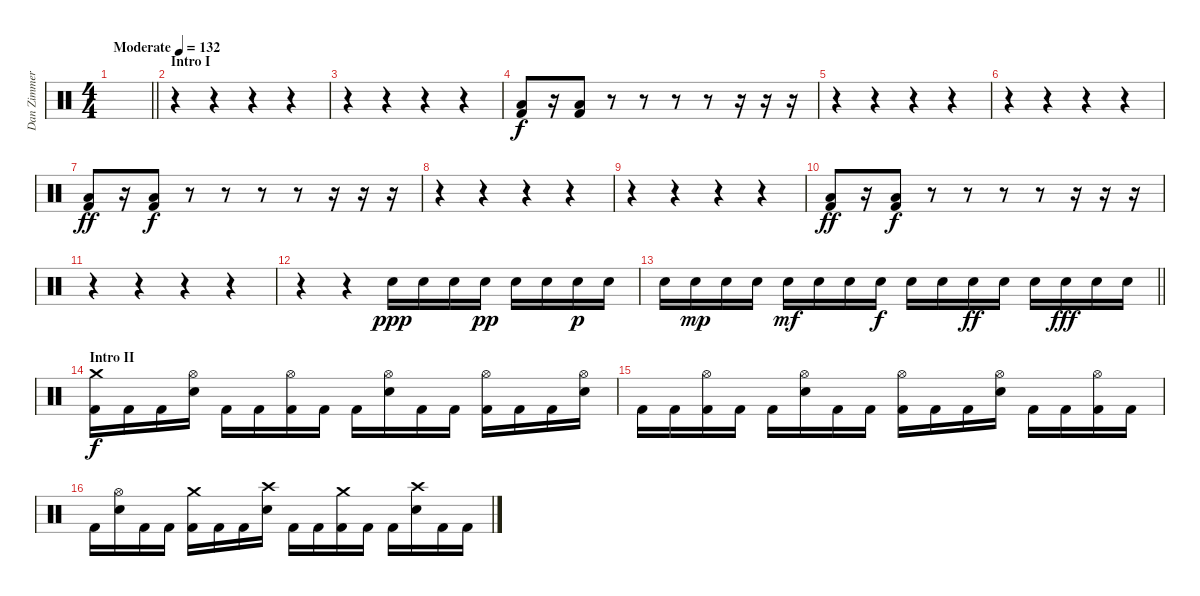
\track ("Dan Zimmermann" "Dan Zimmer") {instrument percussion}
\staff {score}
\articulation defaults
\ts (4 4)
\tempo (132 "Moderate")
\clef neutral
\barLineRight lightlight
\ks c
|
\section ("" "Intro I")
r.4 r.4 r.4 r.4 |
r.4 r.4 r.4 r.4 |
("Low Floor Tom (hit)" "Kick (hit) 2").8 r.16 ("Low Floor Tom (hit)" "Kick (hit) 2").8{dy f} r.8 r.8 r.8 r.8 r.16 r.16 r.16 |
r.4 r.4 r.4 r.4 |
r.4 r.4 r.4 r.4 |
("Low Floor Tom (hit)" "Kick (hit) 2").8{dy ff} r.16 ("Low Floor Tom (hit)" "Kick (hit) 2").8{dy f} r.8 r.8 r.8 r.8 r.16 r.16 r.16 |
r.4 r.4 r.4 r.4 |
r.4 r.4 r.4 r.4 |
("Low Floor Tom (hit)" "Kick (hit) 2").8{dy ff} r.16 ("Low Floor Tom (hit)" "Kick (hit) 2").8{dy f} r.8 r.8 r.8 r.8 r.16 r.16 r.16 |
r.4 r.4 r.4 r.4 |
r.4 r.4 "Electric Snare (hit)".16{dy ppp} "Electric Snare (hit)".16 "Electric Snare (hit)".16 "Electric Snare (hit)".16{dy pp} "Electric Snare (hit)".16 "Electric Snare (hit)".16 "Electric Snare (hit)".16{dy p} "Electric Snare (hit)".16 |
\barLineRight lightlight "Electric Snare (hit)".16 "Electric Snare (hit)".16{dy mp} "Electric Snare (hit)".16 "Electric Snare (hit)".16 "Electric Snare (hit)".16{dy mf} "Electric Snare (hit)".16 "Electric Snare (hit)".16 "Electric Snare (hit)".16{dy f} "Electric Snare (hit)".16 "Electric Snare (hit)".16 "Electric Snare (hit)".16{dy ff} "Electric Snare (hit)".16 "Electric Snare (hit)".16 "Electric Snare (hit)".16{dy fff} "Electric Snare (hit)".16 "Electric Snare (hit)".16
|
\section ("" "Intro II")
("Crash medium (hit)" "Kick (hit) 2").16{dy f} "Kick (hit) 2".16 "Kick (hit) 2".16 ("Hi-Hat (open)" "Electric Snare (hit)").16 "Kick (hit) 2".16 "Kick (hit) 2".16 ("Hi-Hat (open)" "Kick (hit) 2").16 "Kick (hit) 2".16 "Kick (hit) 2".16 ("Hi-Hat (open)" "Electric Snare (hit)").16 "Kick (hit) 2".16 "Kick (hit) 2".16 ("Hi-Hat (open)" "Kick (hit) 2").16 "Kick (hit) 2".16 "Kick (hit) 2".16 ("Hi-Hat (open)" "Electric Snare (hit)").16 |
"Kick (hit) 2".16 "Kick (hit) 2".16 ("Hi-Hat (open)" "Kick (hit) 2").16 "Kick (hit) 2".16 "Kick (hit) 2".16 ("Hi-Hat (open)" "Electric Snare (hit)").16 "Kick (hit) 2".16 "Kick (hit) 2".16 ("Hi-Hat (open)" "Kick (hit) 2").16 "Kick (hit) 2".16 "Kick (hit) 2".16 ("Hi-Hat (open)" "Electric Snare (hit)").16 "Kick (hit) 2".16 "Kick (hit) 2".16 ("Hi-Hat (open)" "Kick (hit) 2").16 "Kick (hit) 2".16 |
"Kick (hit) 2".16 ("Hi-Hat (open)" "Electric Snare (hit)").16 "Kick (hit) 2".16 "Kick (hit) 2".16 ("Crash medium (hit)" "Kick (hit) 2").16 "Kick (hit) 2".16 "Kick (hit) 2".16 ("Crash high (hit)" "Electric Snare (hit)").16 "Kick (hit) 2".16 "Kick (hit) 2".16 ("Crash medium (hit)" "Kick (hit) 2").16 "Kick (hit) 2".16 "Kick (hit) 2".16 ("Crash high (hit)" "Electric Snare (hit)").16 "Kick (hit) 2".16 "Kick (hit) 2".16
